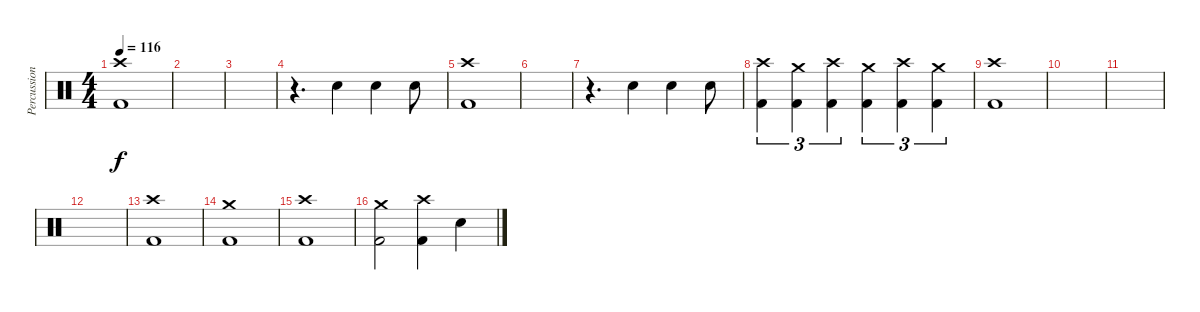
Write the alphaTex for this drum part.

\track ("Percussion" "Percussion") {instrument percussion}
\staff {score}
\articulation defaults
\ts (4 4)
\tempo 116
\clef neutral
\ks c
("Kick (hit) 2" "Crash high (hit)").1{dy f} |
|
|
r.4{d} "Electric Snare (hit)".4 "Electric Snare (hit)".4 "Electric Snare (hit)".8 |
("Kick (hit) 2" "Crash high (hit)").1 |
|
r.4{d} "Electric Snare (hit)".4 "Electric Snare (hit)".4 "Electric Snare (hit)".8 |
("Kick (hit) 2" "Crash high (hit)").4{tu (3 2)} ("Kick (hit) 2" "Crash medium (hit)").4{tu (3 2)} ("Kick (hit) 2" "Crash high (hit)").4{tu (3 2)} ("Kick (hit) 2" "Crash medium (hit)").4{tu (3 2)} ("Kick (hit) 2" "Crash high (hit)").4{tu (3 2)} ("Kick (hit) 2" "Crash medium (hit)").4{tu (3 2)} |
("Kick (hit) 2" "Crash high (hit)").1 |
|
|
|
("Kick (hit) 2" "Crash high (hit)").1 |
("Kick (hit) 2" "Crash medium (hit)").1 |
("Kick (hit) 2" "Crash high (hit)").1 |
("Kick (hit) 2" "Crash medium (hit)").2 ("Kick (hit) 2" "Crash high (hit)").4 "Electric Snare (hit)".4
